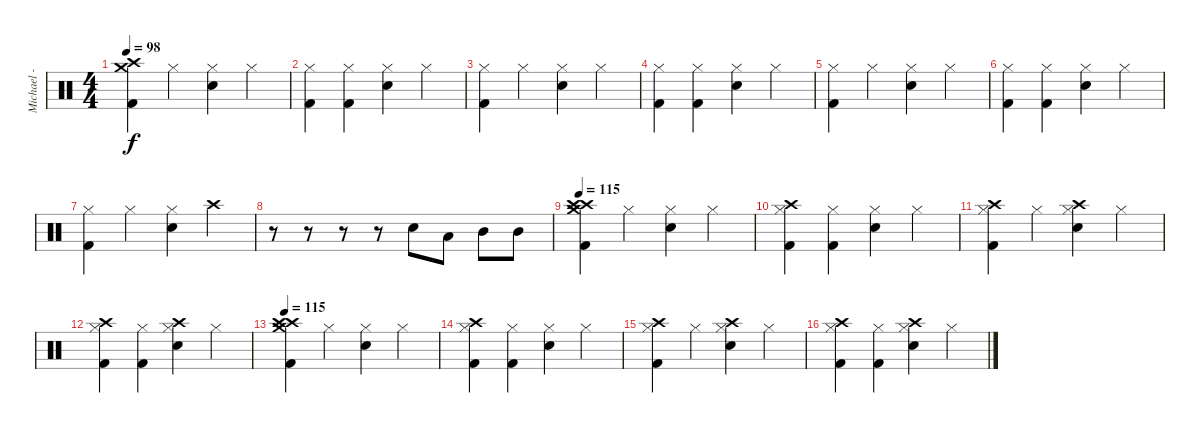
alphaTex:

\track ("Michael - Drums" "Michael - ") {instrument percussion}
\staff {score}
\articulation defaults
\ts (4 4)
\tempo 98
\clef neutral
\ks c
("Crash high (hit)" "Crash medium (hit)" "Kick (hit) 2").4{dy f} "Hi-Hat (closed)".4 ("Hi-Hat (closed)" "Snare (hit) 2").4 "Hi-Hat (closed)".4 |
("Hi-Hat (closed)" "Kick (hit) 2").4 ("Hi-Hat (closed)" "Kick (hit) 2").4 ("Hi-Hat (closed)" "Snare (hit) 2").4 "Hi-Hat (closed)".4 |
("Hi-Hat (closed)" "Kick (hit) 2").4 "Hi-Hat (closed)".4 ("Hi-Hat (closed)" "Snare (hit) 2").4 "Hi-Hat (closed)".4 |
("Hi-Hat (closed)" "Kick (hit) 2").4 ("Hi-Hat (closed)" "Kick (hit) 2").4 ("Hi-Hat (closed)" "Snare (hit) 2").4 "Hi-Hat (closed)".4 |
("Hi-Hat (closed)" "Kick (hit) 2").4 "Hi-Hat (closed)".4 ("Hi-Hat (closed)" "Snare (hit) 2").4 "Hi-Hat (closed)".4 |
("Hi-Hat (closed)" "Kick (hit) 2").4 ("Hi-Hat (closed)" "Kick (hit) 2").4 ("Hi-Hat (closed)" "Snare (hit) 2").4 "Hi-Hat (closed)".4 |
("Hi-Hat (closed)" "Kick (hit) 2").4 "Hi-Hat (closed)".4 ("Hi-Hat (closed)" "Snare (hit) 2").4 "Crash high (hit)".4 |
r.8 r.8 r.8 r.8 "Snare (hit) 2".8 "Low Tom (hit)".8 "Mid Tom (hit)".8 "Mid Tom (hit)".8 |
\tempo 115
("Crash high (hit)" "Crash high (hit)" "Crash medium (hit)" "Kick (hit) 2").4 "Hi-Hat (closed)".4 ("Hi-Hat (closed)" "Snare (hit) 2").4 "Hi-Hat (closed)".4 |
("Crash high (hit)" "Hi-Hat (closed)" "Kick (hit) 2").4 ("Hi-Hat (closed)" "Kick (hit) 2").4 ("Hi-Hat (closed)" "Snare (hit) 2").4 "Hi-Hat (closed)".4 |
("Crash high (hit)" "Hi-Hat (closed)" "Kick (hit) 2").4 "Hi-Hat (closed)".4 ("Crash high (hit)" "Hi-Hat (closed)" "Snare (hit) 2").4 "Hi-Hat (closed)".4 |
("Crash high (hit)" "Hi-Hat (closed)" "Kick (hit) 2").4 ("Hi-Hat (closed)" "Kick (hit) 2").4 ("Crash high (hit)" "Hi-Hat (closed)" "Snare (hit) 2").4 "Hi-Hat (closed)".4 |
\tempo 115
("Crash high (hit)" "Crash high (hit)" "Crash medium (hit)" "Kick (hit) 2").4 "Hi-Hat (closed)".4 ("Hi-Hat (closed)" "Snare (hit) 2").4 "Hi-Hat (closed)".4 |
("Crash high (hit)" "Hi-Hat (closed)" "Kick (hit) 2").4 ("Hi-Hat (closed)" "Kick (hit) 2").4 ("Hi-Hat (closed)" "Snare (hit) 2").4 "Hi-Hat (closed)".4 |
("Crash high (hit)" "Hi-Hat (closed)" "Kick (hit) 2").4 "Hi-Hat (closed)".4 ("Crash high (hit)" "Hi-Hat (closed)" "Snare (hit) 2").4 "Hi-Hat (closed)".4 |
("Crash high (hit)" "Hi-Hat (closed)" "Kick (hit) 2").4 ("Hi-Hat (closed)" "Kick (hit) 2").4 ("Crash high (hit)" "Hi-Hat (closed)" "Snare (hit) 2").4 "Hi-Hat (closed)".4
